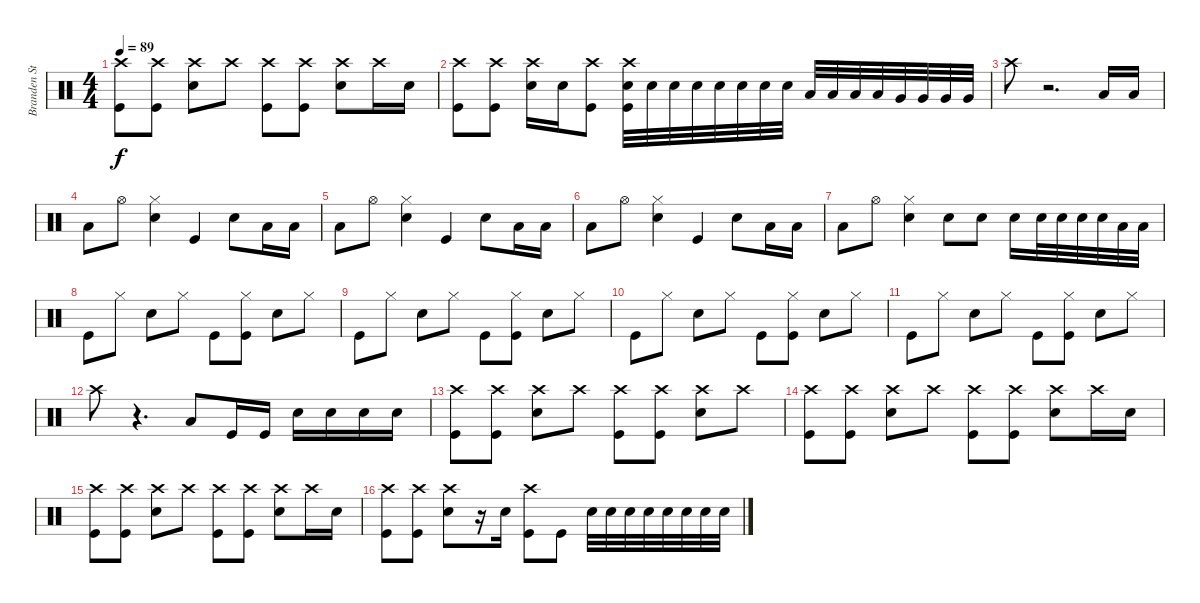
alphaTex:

\track ("Branden Steineckert - Drums" "Branden St") {instrument percussion}
\staff {score}
\articulation defaults
\ts (4 4)
\tempo 89
\clef neutral
\ks c
("Crash high (hit)" "Kick (hit)").8{dy f} ("Crash high (hit)" "Kick (hit)").8 ("Crash high (hit)" "Electric Snare (hit)").8 "Crash high (hit)".8 ("Crash high (hit)" "Kick (hit)").8 ("Crash high (hit)" "Kick (hit)").8 ("Crash high (hit)" "Electric Snare (hit)").8 "Crash high (hit)".16 "Electric Snare (hit)".16 |
("Crash high (hit)" "Kick (hit)").8 ("Crash high (hit)" "Kick (hit)").8 ("Crash high (hit)" "Electric Snare (hit)").16 "Electric Snare (hit)".16 ("Crash high (hit)" "Kick (hit)").8 ("Crash high (hit)" "Electric Snare (hit)" "Kick (hit)").32 "Electric Snare (hit)".32 "Electric Snare (hit)".32 "Electric Snare (hit)".32 "Electric Snare (hit)".32 "Electric Snare (hit)".32 "Electric Snare (hit)".32 "Electric Snare (hit)".32 "Low Tom (hit)".32 "Low Tom (hit)".32 "Low Tom (hit)".32 "Low Tom (hit)".32 "Very Low Tom (hit)".32 "Very Low Tom (hit)".32 "Very Low Tom (hit)".32 "Very Low Tom (hit)".32 |
"Crash high (hit)".8 r.2{d} "Low Floor Tom (hit)".16 "Low Floor Tom (hit)".16 |
"Low Floor Tom (hit)".8 "Hi-Hat (open)".8 ("Hi-Hat (closed)" "Electric Snare (hit)").4 "Kick (hit)".4 "Electric Snare (hit)".8 "Low Floor Tom (hit)".16 "Low Floor Tom (hit)".16 |
"Low Floor Tom (hit)".8 "Hi-Hat (open)".8 ("Hi-Hat (closed)" "Electric Snare (hit)").4 "Kick (hit)".4 "Electric Snare (hit)".8 "Low Floor Tom (hit)".16 "Low Floor Tom (hit)".16 |
"Low Floor Tom (hit)".8 "Hi-Hat (open)".8 ("Hi-Hat (closed)" "Electric Snare (hit)").4 "Kick (hit)".4 "Electric Snare (hit)".8 "Low Floor Tom (hit)".16 "Low Floor Tom (hit)".16 |
"Low Floor Tom (hit)".8 "Hi-Hat (open)".8 ("Hi-Hat (closed)" "Electric Snare (hit)").4 "Electric Snare (hit)".8 "Electric Snare (hit)".8 "Electric Snare (hit)".16 "Electric Snare (hit)".32 "Electric Snare (hit)".32 "Electric Snare (hit)".32 "Electric Snare (hit)".32 "Low Floor Tom (hit)".32 "Low Floor Tom (hit)".32 |
"Kick (hit)".8 "Hi-Hat (closed)".8 "Electric Snare (hit)".8 "Hi-Hat (closed)".8 "Kick (hit)".8 ("Hi-Hat (closed)" "Kick (hit)").8 "Electric Snare (hit)".8 "Hi-Hat (closed)".8 |
"Kick (hit)".8 "Hi-Hat (closed)".8 "Electric Snare (hit)".8 "Hi-Hat (closed)".8 "Kick (hit)".8 ("Hi-Hat (closed)" "Kick (hit)").8 "Electric Snare (hit)".8 "Hi-Hat (closed)".8 |
"Kick (hit)".8 "Hi-Hat (closed)".8 "Electric Snare (hit)".8 "Hi-Hat (closed)".8 "Kick (hit)".8 ("Hi-Hat (closed)" "Kick (hit)").8 "Electric Snare (hit)".8 "Hi-Hat (closed)".8 |
"Kick (hit)".8 "Hi-Hat (closed)".8 "Electric Snare (hit)".8 "Hi-Hat (closed)".8 "Kick (hit)".8 ("Hi-Hat (closed)" "Kick (hit)").8 "Electric Snare (hit)".8 "Hi-Hat (closed)".8 |
"Crash high (hit)".8 r.4{d} "Low Floor Tom (hit)".8 "Kick (hit)".16 "Kick (hit)".16 "Electric Snare (hit)".16 "Electric Snare (hit)".16 "Electric Snare (hit)".16 "Electric Snare (hit)".16 |
("Crash high (hit)" "Kick (hit)").8 ("Crash high (hit)" "Kick (hit)").8 ("Crash high (hit)" "Electric Snare (hit)").8 "Crash high (hit)".8 ("Crash high (hit)" "Kick (hit)").8 ("Crash high (hit)" "Kick (hit)").8 ("Crash high (hit)" "Electric Snare (hit)").8 "Crash high (hit)".8 |
("Crash high (hit)" "Kick (hit)").8 ("Crash high (hit)" "Kick (hit)").8 ("Crash high (hit)" "Electric Snare (hit)").8 "Crash high (hit)".8 ("Crash high (hit)" "Kick (hit)").8 ("Crash high (hit)" "Kick (hit)").8 ("Crash high (hit)" "Electric Snare (hit)").8 "Crash high (hit)".16 "Electric Snare (hit)".16 |
("Crash high (hit)" "Kick (hit)").8 ("Crash high (hit)" "Kick (hit)").8 ("Crash high (hit)" "Electric Snare (hit)").8 "Crash high (hit)".8 ("Crash high (hit)" "Kick (hit)").8 ("Crash high (hit)" "Kick (hit)").8 ("Crash high (hit)" "Electric Snare (hit)").8 "Crash high (hit)".16 "Electric Snare (hit)".16 |
("Crash high (hit)" "Kick (hit)").8 ("Crash high (hit)" "Kick (hit)").8 ("Crash high (hit)" "Electric Snare (hit)").8 r.16 "Electric Snare (hit)".16 ("Crash high (hit)" "Kick (hit)").8 "Kick (hit)".8 "Electric Snare (hit)".32 "Electric Snare (hit)".32 "Electric Snare (hit)".32 "Electric Snare (hit)".32 "Electric Snare (hit)".32 "Electric Snare (hit)".32 "Electric Snare (hit)".32 "Electric Snare (hit)".32
